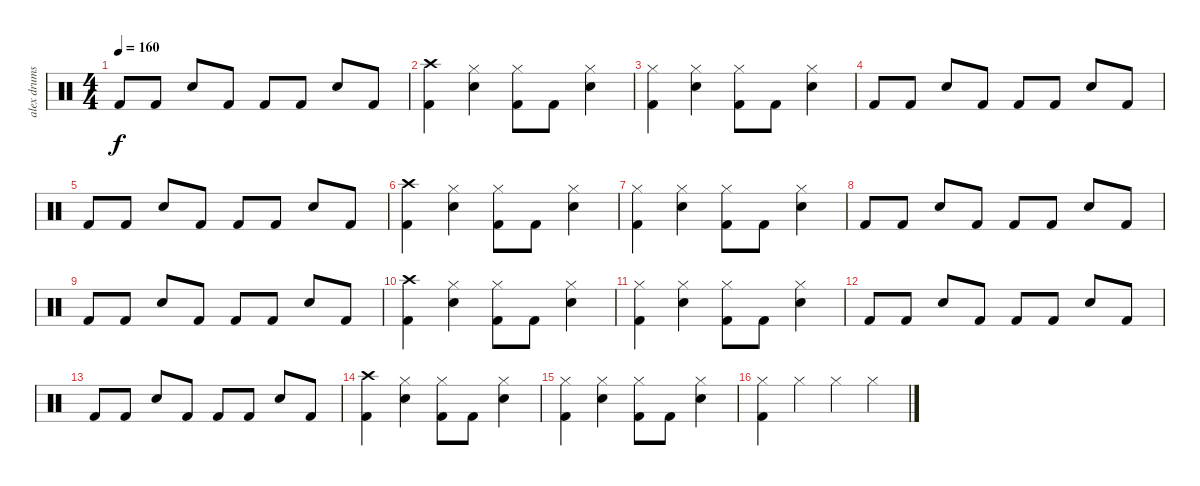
\track ("alex drums" "alex drums") {instrument percussion}
\staff {score}
\articulation defaults
\ts (4 4)
\tempo 160
\clef neutral
\ks c "Kick (hit) 2".8{dy f} "Kick (hit) 2".8 "Snare (hit) 2".8 "Kick (hit) 2".8 "Kick (hit) 2".8 "Kick (hit) 2".8 "Snare (hit) 2".8 "Kick (hit) 2".8
|
("Crash high (hit)" "Kick (hit) 2").4 ("Hi-Hat (closed)" "Snare (hit) 2").4 ("Hi-Hat (closed)" "Kick (hit) 2").8 "Kick (hit) 2".8 ("Hi-Hat (closed)" "Snare (hit) 2").4 |
("Hi-Hat (closed)" "Kick (hit) 2").4 ("Hi-Hat (closed)" "Snare (hit) 2").4 ("Hi-Hat (closed)" "Kick (hit) 2").8 "Kick (hit) 2".8 ("Hi-Hat (closed)" "Snare (hit) 2").4 |
"Kick (hit) 2".8 "Kick (hit) 2".8 "Snare (hit) 2".8 "Kick (hit) 2".8 "Kick (hit) 2".8 "Kick (hit) 2".8 "Snare (hit) 2".8 "Kick (hit) 2".8 |
"Kick (hit) 2".8 "Kick (hit) 2".8 "Snare (hit) 2".8 "Kick (hit) 2".8 "Kick (hit) 2".8 "Kick (hit) 2".8 "Snare (hit) 2".8 "Kick (hit) 2".8 |
("Crash high (hit)" "Kick (hit) 2").4 ("Hi-Hat (closed)" "Snare (hit) 2").4 ("Hi-Hat (closed)" "Kick (hit) 2").8 "Kick (hit) 2".8 ("Hi-Hat (closed)" "Snare (hit) 2").4 |
("Hi-Hat (closed)" "Kick (hit) 2").4 ("Hi-Hat (closed)" "Snare (hit) 2").4 ("Hi-Hat (closed)" "Kick (hit) 2").8 "Kick (hit) 2".8 ("Hi-Hat (closed)" "Snare (hit) 2").4 |
"Kick (hit) 2".8 "Kick (hit) 2".8 "Snare (hit) 2".8 "Kick (hit) 2".8 "Kick (hit) 2".8 "Kick (hit) 2".8 "Snare (hit) 2".8 "Kick (hit) 2".8 |
"Kick (hit) 2".8 "Kick (hit) 2".8 "Snare (hit) 2".8 "Kick (hit) 2".8 "Kick (hit) 2".8 "Kick (hit) 2".8 "Snare (hit) 2".8 "Kick (hit) 2".8 |
("Crash high (hit)" "Kick (hit) 2").4 ("Hi-Hat (closed)" "Snare (hit) 2").4 ("Hi-Hat (closed)" "Kick (hit) 2").8 "Kick (hit) 2".8 ("Hi-Hat (closed)" "Snare (hit) 2").4 |
("Hi-Hat (closed)" "Kick (hit) 2").4 ("Hi-Hat (closed)" "Snare (hit) 2").4 ("Hi-Hat (closed)" "Kick (hit) 2").8 "Kick (hit) 2".8 ("Hi-Hat (closed)" "Snare (hit) 2").4 |
"Kick (hit) 2".8 "Kick (hit) 2".8 "Snare (hit) 2".8 "Kick (hit) 2".8 "Kick (hit) 2".8 "Kick (hit) 2".8 "Snare (hit) 2".8 "Kick (hit) 2".8 |
"Kick (hit) 2".8 "Kick (hit) 2".8 "Snare (hit) 2".8 "Kick (hit) 2".8 "Kick (hit) 2".8 "Kick (hit) 2".8 "Snare (hit) 2".8 "Kick (hit) 2".8 |
("Crash high (hit)" "Kick (hit) 2").4 ("Hi-Hat (closed)" "Snare (hit) 2").4 ("Hi-Hat (closed)" "Kick (hit) 2").8 "Kick (hit) 2".8 ("Hi-Hat (closed)" "Snare (hit) 2").4 |
("Hi-Hat (closed)" "Kick (hit) 2").4 ("Hi-Hat (closed)" "Snare (hit) 2").4 ("Hi-Hat (closed)" "Kick (hit) 2").8 "Kick (hit) 2".8 ("Hi-Hat (closed)" "Snare (hit) 2").4 |
("Hi-Hat (closed)" "Kick (hit) 2").4 "Hi-Hat (closed)".4 "Hi-Hat (closed)".4 "Hi-Hat (closed)".4
